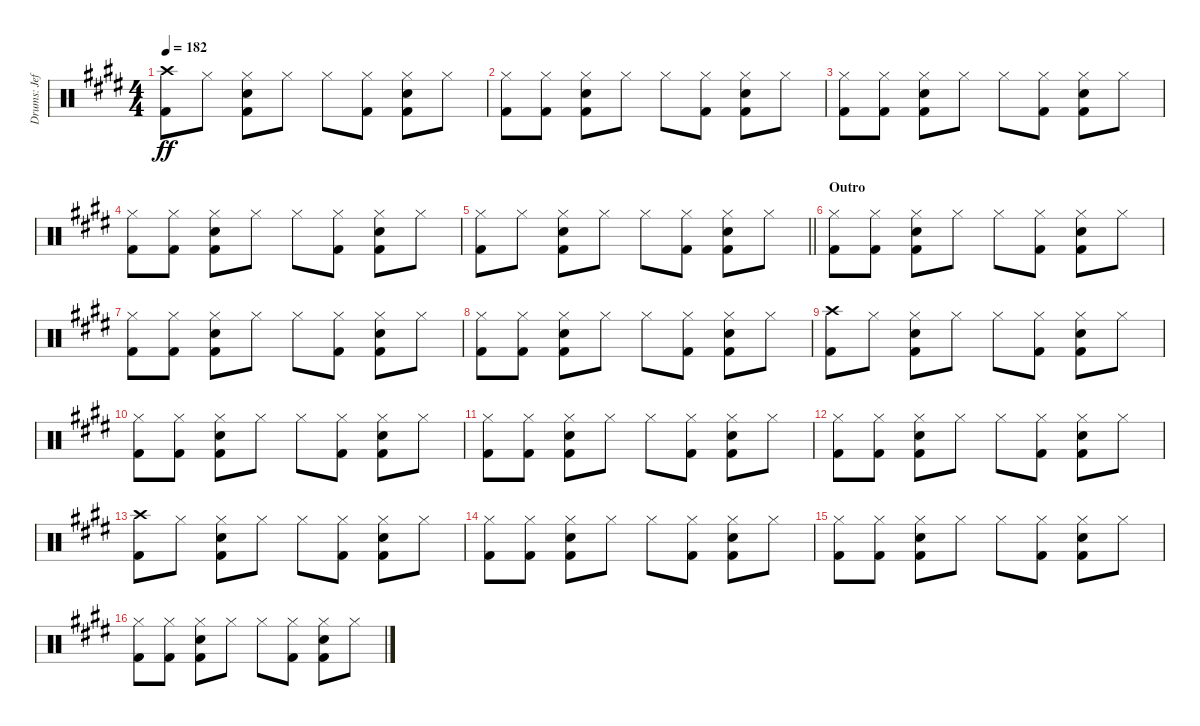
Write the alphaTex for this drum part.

\track ("Drums: Jeff" "Drums: Jef") {instrument percussion}
\staff {score}
\articulation defaults
\ts (4 4)
\tempo 182
\clef neutral
\ks e
("Crash high (hit)" "Kick (hit) 2").8{dy ff} "Hi-Hat (closed)".8 ("Hi-Hat (closed)" "Electric Snare (hit)" "Kick (hit) 2").8 "Hi-Hat (closed)".8 "Hi-Hat (closed)".8 ("Hi-Hat (closed)" "Kick (hit) 2").8 ("Hi-Hat (closed)" "Electric Snare (hit)" "Kick (hit) 2").8 "Hi-Hat (closed)".8 |
("Hi-Hat (closed)" "Kick (hit) 2").8 ("Hi-Hat (closed)" "Kick (hit) 2").8 ("Hi-Hat (closed)" "Electric Snare (hit)" "Kick (hit) 2").8 "Hi-Hat (closed)".8 "Hi-Hat (closed)".8 ("Hi-Hat (closed)" "Kick (hit) 2").8 ("Hi-Hat (closed)" "Electric Snare (hit)" "Kick (hit) 2").8 "Hi-Hat (closed)".8 |
("Hi-Hat (closed)" "Kick (hit) 2").8 ("Hi-Hat (closed)" "Kick (hit) 2").8 ("Hi-Hat (closed)" "Electric Snare (hit)" "Kick (hit) 2").8 "Hi-Hat (closed)".8 "Hi-Hat (closed)".8 ("Hi-Hat (closed)" "Kick (hit) 2").8 ("Hi-Hat (closed)" "Electric Snare (hit)" "Kick (hit) 2").8 "Hi-Hat (closed)".8 |
("Hi-Hat (closed)" "Kick (hit) 2").8 ("Hi-Hat (closed)" "Kick (hit) 2").8 ("Hi-Hat (closed)" "Electric Snare (hit)" "Kick (hit) 2").8 "Hi-Hat (closed)".8 "Hi-Hat (closed)".8 ("Hi-Hat (closed)" "Kick (hit) 2").8 ("Hi-Hat (closed)" "Electric Snare (hit)" "Kick (hit) 2").8 "Hi-Hat (closed)".8 |
\barLineRight lightlight
("Hi-Hat (closed)" "Kick (hit) 2").8 "Hi-Hat (closed)".8 ("Hi-Hat (closed)" "Electric Snare (hit)" "Kick (hit) 2").8 "Hi-Hat (closed)".8 "Hi-Hat (closed)".8 ("Hi-Hat (closed)" "Kick (hit) 2").8 ("Hi-Hat (closed)" "Electric Snare (hit)" "Kick (hit) 2").8 "Hi-Hat (closed)".8 |
\section ("" "Outro")
("Hi-Hat (closed)" "Kick (hit) 2").8 ("Hi-Hat (closed)" "Kick (hit) 2").8 ("Hi-Hat (closed)" "Electric Snare (hit)" "Kick (hit) 2").8 "Hi-Hat (closed)".8 "Hi-Hat (closed)".8 ("Hi-Hat (closed)" "Kick (hit) 2").8 ("Hi-Hat (closed)" "Electric Snare (hit)" "Kick (hit) 2").8 "Hi-Hat (closed)".8 |
("Hi-Hat (closed)" "Kick (hit) 2").8 ("Hi-Hat (closed)" "Kick (hit) 2").8 ("Hi-Hat (closed)" "Electric Snare (hit)" "Kick (hit) 2").8 "Hi-Hat (closed)".8 "Hi-Hat (closed)".8 ("Hi-Hat (closed)" "Kick (hit) 2").8 ("Hi-Hat (closed)" "Electric Snare (hit)" "Kick (hit) 2").8 "Hi-Hat (closed)".8 |
("Hi-Hat (closed)" "Kick (hit) 2").8 ("Hi-Hat (closed)" "Kick (hit) 2").8 ("Hi-Hat (closed)" "Electric Snare (hit)" "Kick (hit) 2").8 "Hi-Hat (closed)".8 "Hi-Hat (closed)".8 ("Hi-Hat (closed)" "Kick (hit) 2").8 ("Hi-Hat (closed)" "Electric Snare (hit)" "Kick (hit) 2").8 "Hi-Hat (closed)".8 |
("Crash high (hit)" "Kick (hit) 2").8 "Hi-Hat (closed)".8 ("Hi-Hat (closed)" "Electric Snare (hit)" "Kick (hit) 2").8 "Hi-Hat (closed)".8 "Hi-Hat (closed)".8 ("Hi-Hat (closed)" "Kick (hit) 2").8 ("Hi-Hat (closed)" "Electric Snare (hit)" "Kick (hit) 2").8 "Hi-Hat (closed)".8 |
("Hi-Hat (closed)" "Kick (hit) 2").8 ("Hi-Hat (closed)" "Kick (hit) 2").8 ("Hi-Hat (closed)" "Electric Snare (hit)" "Kick (hit) 2").8 "Hi-Hat (closed)".8 "Hi-Hat (closed)".8 ("Hi-Hat (closed)" "Kick (hit) 2").8 ("Hi-Hat (closed)" "Electric Snare (hit)" "Kick (hit) 2").8 "Hi-Hat (closed)".8 |
("Hi-Hat (closed)" "Kick (hit) 2").8 ("Hi-Hat (closed)" "Kick (hit) 2").8 ("Hi-Hat (closed)" "Electric Snare (hit)" "Kick (hit) 2").8 "Hi-Hat (closed)".8 "Hi-Hat (closed)".8 ("Hi-Hat (closed)" "Kick (hit) 2").8 ("Hi-Hat (closed)" "Electric Snare (hit)" "Kick (hit) 2").8 "Hi-Hat (closed)".8 |
("Hi-Hat (closed)" "Kick (hit) 2").8 ("Hi-Hat (closed)" "Kick (hit) 2").8 ("Hi-Hat (closed)" "Electric Snare (hit)" "Kick (hit) 2").8 "Hi-Hat (closed)".8 "Hi-Hat (closed)".8 ("Hi-Hat (closed)" "Kick (hit) 2").8 ("Hi-Hat (closed)" "Electric Snare (hit)" "Kick (hit) 2").8 "Hi-Hat (closed)".8 |
("Crash high (hit)" "Kick (hit) 2").8 "Hi-Hat (closed)".8 ("Hi-Hat (closed)" "Electric Snare (hit)" "Kick (hit) 2").8 "Hi-Hat (closed)".8 "Hi-Hat (closed)".8 ("Hi-Hat (closed)" "Kick (hit) 2").8 ("Hi-Hat (closed)" "Electric Snare (hit)" "Kick (hit) 2").8 "Hi-Hat (closed)".8 |
("Hi-Hat (closed)" "Kick (hit) 2").8 ("Hi-Hat (closed)" "Kick (hit) 2").8 ("Hi-Hat (closed)" "Electric Snare (hit)" "Kick (hit) 2").8 "Hi-Hat (closed)".8 "Hi-Hat (closed)".8 ("Hi-Hat (closed)" "Kick (hit) 2").8 ("Hi-Hat (closed)" "Electric Snare (hit)" "Kick (hit) 2").8 "Hi-Hat (closed)".8 |
("Hi-Hat (closed)" "Kick (hit) 2").8 ("Hi-Hat (closed)" "Kick (hit) 2").8 ("Hi-Hat (closed)" "Electric Snare (hit)" "Kick (hit) 2").8 "Hi-Hat (closed)".8 "Hi-Hat (closed)".8 ("Hi-Hat (closed)" "Kick (hit) 2").8 ("Hi-Hat (closed)" "Electric Snare (hit)" "Kick (hit) 2").8 "Hi-Hat (closed)".8 |
("Hi-Hat (closed)" "Kick (hit) 2").8 ("Hi-Hat (closed)" "Kick (hit) 2").8 ("Hi-Hat (closed)" "Electric Snare (hit)" "Kick (hit) 2").8 "Hi-Hat (closed)".8 "Hi-Hat (closed)".8 ("Hi-Hat (closed)" "Kick (hit) 2").8 ("Hi-Hat (closed)" "Electric Snare (hit)" "Kick (hit) 2").8 "Hi-Hat (closed)".8
